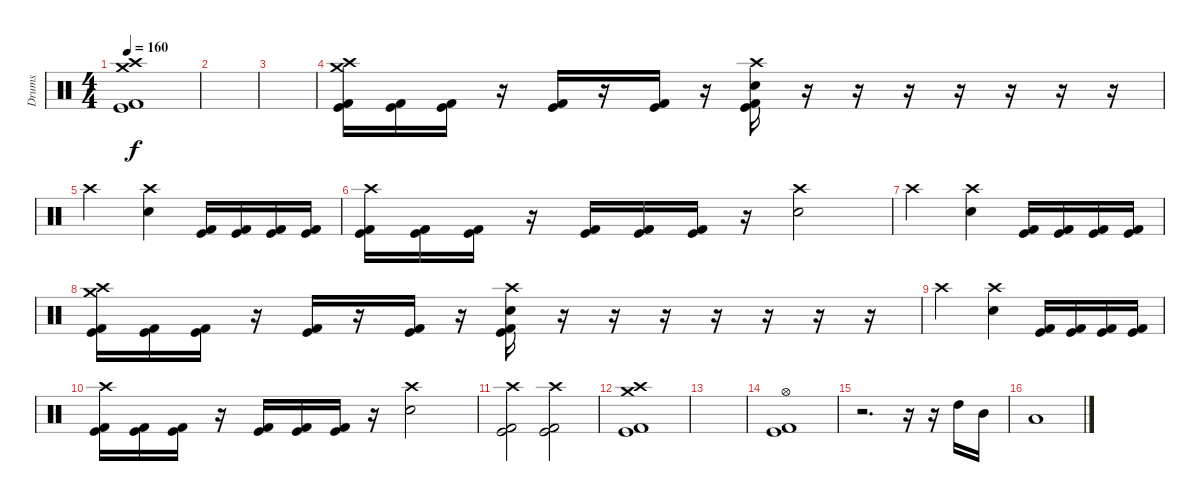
\track ("Drums" "Drums") {instrument percussion}
\staff {score}
\articulation defaults
\ts (4 4)
\tempo 160
\clef neutral
\ks c
("Crash medium (hit)" "Crash high (hit)" "Kick (hit)" "Kick (hit) 2").1{dy f} |
|
|
("Crash medium (hit)" "Crash high (hit)" "Kick (hit)" "Kick (hit) 2").16 ("Kick (hit)" "Kick (hit) 2").16 ("Kick (hit)" "Kick (hit) 2").16 r.16 ("Kick (hit)" "Kick (hit) 2").16 r.16 ("Kick (hit)" "Kick (hit) 2").16 r.16 ("Crash high (hit)" "Snare (hit) 2" "Kick (hit)" "Kick (hit) 2").16 r.16 r.16 r.16 r.16 r.16 r.16 r.16 |
"Crash high (hit)".2 ("Crash high (hit)" "Snare (hit) 2").4 ("Kick (hit)" "Kick (hit) 2").16 ("Kick (hit)" "Kick (hit) 2").16 ("Kick (hit)" "Kick (hit) 2").16 ("Kick (hit)" "Kick (hit) 2").16 |
("Crash high (hit)" "Kick (hit)" "Kick (hit) 2").16 ("Kick (hit)" "Kick (hit) 2").16 ("Kick (hit)" "Kick (hit) 2").16 r.16 ("Kick (hit)" "Kick (hit) 2").16 ("Kick (hit)" "Kick (hit) 2").16 ("Kick (hit)" "Kick (hit) 2").16 r.16 ("Crash high (hit)" "Snare (hit) 2").2 |
"Crash high (hit)".2 ("Crash high (hit)" "Snare (hit) 2").4 ("Kick (hit)" "Kick (hit) 2").16 ("Kick (hit)" "Kick (hit) 2").16 ("Kick (hit)" "Kick (hit) 2").16 ("Kick (hit)" "Kick (hit) 2").16 |
("Crash medium (hit)" "Crash high (hit)" "Kick (hit)" "Kick (hit) 2").16 ("Kick (hit)" "Kick (hit) 2").16 ("Kick (hit)" "Kick (hit) 2").16 r.16 ("Kick (hit)" "Kick (hit) 2").16 r.16 ("Kick (hit)" "Kick (hit) 2").16 r.16 ("Crash high (hit)" "Snare (hit) 2" "Kick (hit)" "Kick (hit) 2").16 r.16 r.16 r.16 r.16 r.16 r.16 r.16 |
"Crash high (hit)".2 ("Crash high (hit)" "Snare (hit) 2").4 ("Kick (hit)" "Kick (hit) 2").16 ("Kick (hit)" "Kick (hit) 2").16 ("Kick (hit)" "Kick (hit) 2").16 ("Kick (hit)" "Kick (hit) 2").16 |
("Crash high (hit)" "Kick (hit)" "Kick (hit) 2").16 ("Kick (hit)" "Kick (hit) 2").16 ("Kick (hit)" "Kick (hit) 2").16 r.16 ("Kick (hit)" "Kick (hit) 2").16 ("Kick (hit)" "Kick (hit) 2").16 ("Kick (hit)" "Kick (hit) 2").16 r.16 ("Crash high (hit)" "Snare (hit) 2").2 |
("Crash high (hit)" "Kick (hit)" "Kick (hit) 2").2 ("Crash high (hit)" "Kick (hit)" "Kick (hit) 2").2 |
("Crash medium (hit)" "Crash high (hit)" "Kick (hit)" "Kick (hit) 2").1 |
|
("Hi-Hat (open)" "Kick (hit)" "Kick (hit) 2").1 |
r.2{d} r.16 r.16 "High Tom (hit)".16 "Mid Tom (hit)".16 |
"Low Tom (hit)".1
